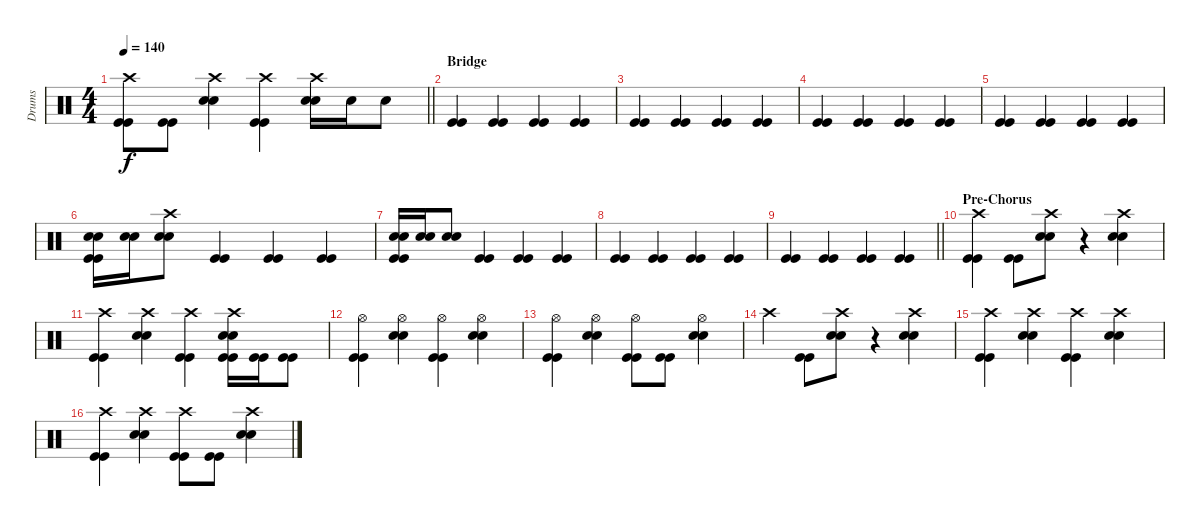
\track ("Drums" "Drums") {instrument percussion}
\staff {score}
\articulation defaults
\ts (4 4)
\tempo 140
\clef neutral
\barLineRight lightlight
\ks c
("Crash high (hit)" "Kick (hit)" "Kick (hit)").8{dy f} ("Kick (hit)" "Kick (hit)").8 ("Crash high (hit)" "Snare (hit) 2" "Snare (hit) 2").4 ("Crash high (hit)" "Kick (hit)" "Kick (hit)").4 ("Crash high (hit)" "Snare (hit) 2" "Snare (hit) 2").16 "Snare (hit) 2".16 "Snare (hit) 2".8 |
\section ("" "Bridge")
("Kick (hit)" "Kick (hit)").4 ("Kick (hit)" "Kick (hit)").4 ("Kick (hit)" "Kick (hit)").4 ("Kick (hit)" "Kick (hit)").4 |
("Kick (hit)" "Kick (hit)").4 ("Kick (hit)" "Kick (hit)").4 ("Kick (hit)" "Kick (hit)").4 ("Kick (hit)" "Kick (hit)").4 |
("Kick (hit)" "Kick (hit)").4 ("Kick (hit)" "Kick (hit)").4 ("Kick (hit)" "Kick (hit)").4 ("Kick (hit)" "Kick (hit)").4 |
("Kick (hit)" "Kick (hit)").4 ("Kick (hit)" "Kick (hit)").4 ("Kick (hit)" "Kick (hit)").4 ("Kick (hit)" "Kick (hit)").4 |
("Snare (hit) 2" "Snare (hit) 2" "Kick (hit)" "Kick (hit)").16 ("Snare (hit) 2" "Snare (hit) 2").16 ("Crash high (hit)" "Snare (hit) 2" "Snare (hit) 2").8 ("Kick (hit)" "Kick (hit)").4 ("Kick (hit)" "Kick (hit)").4 ("Kick (hit)" "Kick (hit)").4 |
("Snare (hit) 2" "Snare (hit) 2" "Kick (hit)" "Kick (hit)").16 ("Snare (hit) 2" "Snare (hit) 2").16 ("Snare (hit) 2" "Snare (hit) 2").8 ("Kick (hit)" "Kick (hit)").4 ("Kick (hit)" "Kick (hit)").4 ("Kick (hit)" "Kick (hit)").4 |
("Kick (hit)" "Kick (hit)").4 ("Kick (hit)" "Kick (hit)").4 ("Kick (hit)" "Kick (hit)").4 ("Kick (hit)" "Kick (hit)").4 |
\barLineRight lightlight
("Kick (hit)" "Kick (hit)").4 ("Kick (hit)" "Kick (hit)").4 ("Kick (hit)" "Kick (hit)").4 ("Kick (hit)" "Kick (hit)").4 |
\section ("" "Pre-Chorus")
("Crash high (hit)" "Kick (hit)" "Kick (hit)").4 ("Kick (hit)" "Kick (hit)").8 ("Crash high (hit)" "Snare (hit) 2" "Snare (hit) 2").8 r.4 ("Crash high (hit)" "Snare (hit) 2" "Snare (hit) 2").4 |
("Crash high (hit)" "Kick (hit)" "Kick (hit)").4 ("Crash high (hit)" "Snare (hit) 2" "Snare (hit) 2").4 ("Crash high (hit)" "Kick (hit)" "Kick (hit)").4 ("Crash high (hit)" "Snare (hit) 2" "Snare (hit) 2" "Kick (hit)" "Kick (hit)").16 ("Kick (hit)" "Kick (hit)").16 ("Kick (hit)" "Kick (hit)").8 |
("Hi-Hat (open)" "Kick (hit)" "Kick (hit)").4 ("Hi-Hat (open)" "Snare (hit) 2" "Snare (hit) 2").4 ("Hi-Hat (open)" "Kick (hit)" "Kick (hit)").4 ("Hi-Hat (open)" "Snare (hit) 2" "Snare (hit) 2").4 |
("Hi-Hat (open)" "Kick (hit)" "Kick (hit)").4 ("Hi-Hat (open)" "Snare (hit) 2" "Snare (hit) 2").4 ("Hi-Hat (open)" "Kick (hit)" "Kick (hit)").8 ("Kick (hit)" "Kick (hit)").8 ("Hi-Hat (open)" "Snare (hit) 2" "Snare (hit) 2").4 |
"Crash high (hit)".4 ("Kick (hit)" "Kick (hit)").8 ("Crash high (hit)" "Snare (hit) 2" "Snare (hit) 2").8 r.4 ("Crash high (hit)" "Snare (hit) 2" "Snare (hit) 2").4 |
("Crash high (hit)" "Kick (hit)" "Kick (hit)").4 ("Crash high (hit)" "Snare (hit) 2" "Snare (hit) 2").4 ("Crash high (hit)" "Kick (hit)" "Kick (hit)").4 ("Crash high (hit)" "Snare (hit) 2" "Snare (hit) 2").4 |
("Crash high (hit)" "Kick (hit)" "Kick (hit)").4 ("Crash high (hit)" "Snare (hit) 2" "Snare (hit) 2").4 ("Crash high (hit)" "Kick (hit)" "Kick (hit)").8 ("Kick (hit)" "Kick (hit)").8 ("Crash high (hit)" "Snare (hit) 2" "Snare (hit) 2").4
